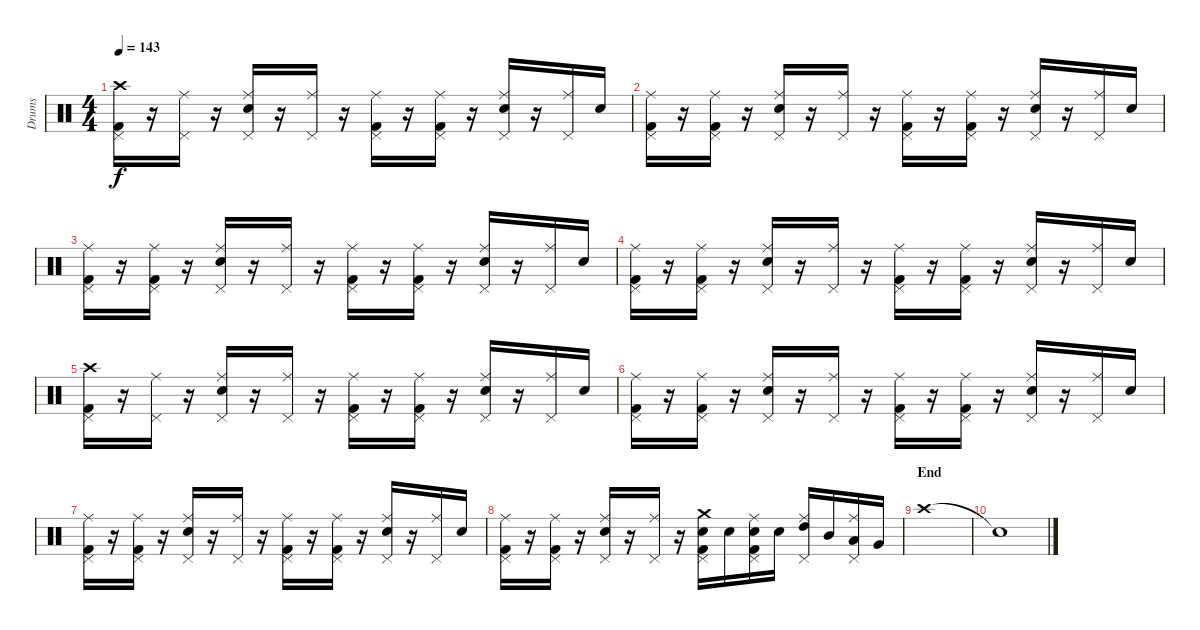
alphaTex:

\track ("Drums" "Drums") {instrument percussion}
\staff {score}
\articulation defaults
\ts (4 4)
\tempo 143
\clef neutral
\ks c
("Crash high (hit)" "Kick (hit) 2" "Pedal Hi-Hat (hit)").16{dy f} r.16 ("Ride (middle)" "Pedal Hi-Hat (hit)").16 r.16 ("Ride (middle)" "Electric Snare (hit)" "Pedal Hi-Hat (hit)").16 r.16 ("Ride (middle)" "Pedal Hi-Hat (hit)").16 r.16 ("Ride (middle)" "Kick (hit) 2" "Pedal Hi-Hat (hit)").16 r.16 ("Ride (middle)" "Kick (hit) 2" "Pedal Hi-Hat (hit)").16 r.16 ("Ride (middle)" "Electric Snare (hit)" "Pedal Hi-Hat (hit)").16 r.16 ("Ride (middle)" "Pedal Hi-Hat (hit)").16 "Electric Snare (hit)".16 |
("Ride (middle)" "Kick (hit) 2" "Pedal Hi-Hat (hit)").16 r.16 ("Ride (middle)" "Kick (hit) 2" "Pedal Hi-Hat (hit)").16 r.16 ("Ride (middle)" "Electric Snare (hit)" "Pedal Hi-Hat (hit)").16 r.16 ("Ride (middle)" "Pedal Hi-Hat (hit)").16 r.16 ("Ride (middle)" "Kick (hit) 2" "Pedal Hi-Hat (hit)").16 r.16 ("Ride (middle)" "Kick (hit) 2" "Pedal Hi-Hat (hit)").16 r.16 ("Ride (middle)" "Electric Snare (hit)" "Pedal Hi-Hat (hit)").16 r.16 ("Ride (middle)" "Pedal Hi-Hat (hit)").16 "Electric Snare (hit)".16 |
("Ride (middle)" "Kick (hit) 2" "Pedal Hi-Hat (hit)").16 r.16 ("Ride (middle)" "Kick (hit) 2" "Pedal Hi-Hat (hit)").16 r.16 ("Ride (middle)" "Electric Snare (hit)" "Pedal Hi-Hat (hit)").16 r.16 ("Ride (middle)" "Pedal Hi-Hat (hit)").16 r.16 ("Ride (middle)" "Kick (hit) 2" "Pedal Hi-Hat (hit)").16 r.16 ("Ride (middle)" "Kick (hit) 2" "Pedal Hi-Hat (hit)").16 r.16 ("Ride (middle)" "Electric Snare (hit)" "Pedal Hi-Hat (hit)").16 r.16 ("Ride (middle)" "Pedal Hi-Hat (hit)").16 "Electric Snare (hit)".16 |
("Ride (middle)" "Kick (hit) 2" "Pedal Hi-Hat (hit)").16 r.16 ("Ride (middle)" "Kick (hit) 2" "Pedal Hi-Hat (hit)").16 r.16 ("Ride (middle)" "Electric Snare (hit)" "Pedal Hi-Hat (hit)").16 r.16 ("Ride (middle)" "Pedal Hi-Hat (hit)").16 r.16 ("Ride (middle)" "Kick (hit) 2" "Pedal Hi-Hat (hit)").16 r.16 ("Ride (middle)" "Kick (hit) 2" "Pedal Hi-Hat (hit)").16 r.16 ("Ride (middle)" "Electric Snare (hit)" "Pedal Hi-Hat (hit)").16 r.16 ("Ride (middle)" "Pedal Hi-Hat (hit)").16 "Electric Snare (hit)".16 |
("Crash high (hit)" "Kick (hit) 2" "Pedal Hi-Hat (hit)").16 r.16 ("Ride (middle)" "Pedal Hi-Hat (hit)").16 r.16 ("Ride (middle)" "Electric Snare (hit)" "Pedal Hi-Hat (hit)").16 r.16 ("Ride (middle)" "Pedal Hi-Hat (hit)").16 r.16 ("Ride (middle)" "Kick (hit) 2" "Pedal Hi-Hat (hit)").16 r.16 ("Ride (middle)" "Kick (hit) 2" "Pedal Hi-Hat (hit)").16 r.16 ("Ride (middle)" "Electric Snare (hit)" "Pedal Hi-Hat (hit)").16 r.16 ("Ride (middle)" "Pedal Hi-Hat (hit)").16 "Electric Snare (hit)".16 |
("Ride (middle)" "Kick (hit) 2" "Pedal Hi-Hat (hit)").16 r.16 ("Ride (middle)" "Kick (hit) 2" "Pedal Hi-Hat (hit)").16 r.16 ("Ride (middle)" "Electric Snare (hit)" "Pedal Hi-Hat (hit)").16 r.16 ("Ride (middle)" "Pedal Hi-Hat (hit)").16 r.16 ("Ride (middle)" "Kick (hit) 2" "Pedal Hi-Hat (hit)").16 r.16 ("Ride (middle)" "Kick (hit) 2" "Pedal Hi-Hat (hit)").16 r.16 ("Ride (middle)" "Electric Snare (hit)" "Pedal Hi-Hat (hit)").16 r.16 ("Ride (middle)" "Pedal Hi-Hat (hit)").16 "Electric Snare (hit)".16 |
("Ride (middle)" "Kick (hit) 2" "Pedal Hi-Hat (hit)").16 r.16 ("Ride (middle)" "Kick (hit) 2" "Pedal Hi-Hat (hit)").16 r.16 ("Ride (middle)" "Electric Snare (hit)" "Pedal Hi-Hat (hit)").16 r.16 ("Ride (middle)" "Pedal Hi-Hat (hit)").16 r.16 ("Ride (middle)" "Kick (hit) 2" "Pedal Hi-Hat (hit)").16 r.16 ("Ride (middle)" "Kick (hit) 2" "Pedal Hi-Hat (hit)").16 r.16 ("Ride (middle)" "Electric Snare (hit)" "Pedal Hi-Hat (hit)").16 r.16 ("Ride (middle)" "Pedal Hi-Hat (hit)").16 "Electric Snare (hit)".16 |
("Ride (middle)" "Kick (hit) 2" "Pedal Hi-Hat (hit)").16 r.16 ("Ride (middle)" "Kick (hit) 2" "Pedal Hi-Hat (hit)").16 r.16 ("Ride (middle)" "Electric Snare (hit)" "Pedal Hi-Hat (hit)").16 r.16 ("Ride (middle)" "Pedal Hi-Hat (hit)").16 r.16 ("Crash medium (hit)" "Electric Snare (hit)" "Kick (hit) 2" "Pedal Hi-Hat (hit)").16 "Electric Snare (hit)".16 ("Ride (middle)" "Electric Snare (hit)" "Kick (hit) 2" "Pedal Hi-Hat (hit)").16 "Electric Snare (hit)".16 ("Ride (middle)" "High Tom (hit)" "Pedal Hi-Hat (hit)").16 "Mid Tom (hit)".16 ("Ride (middle)" "Low Tom (hit)" "Pedal Hi-Hat (hit)").16 "Very Low Tom (hit)".16 |
\section ("" "End")
"Crash high (hit)".1 |
"Snare (hit)"{t}.1
